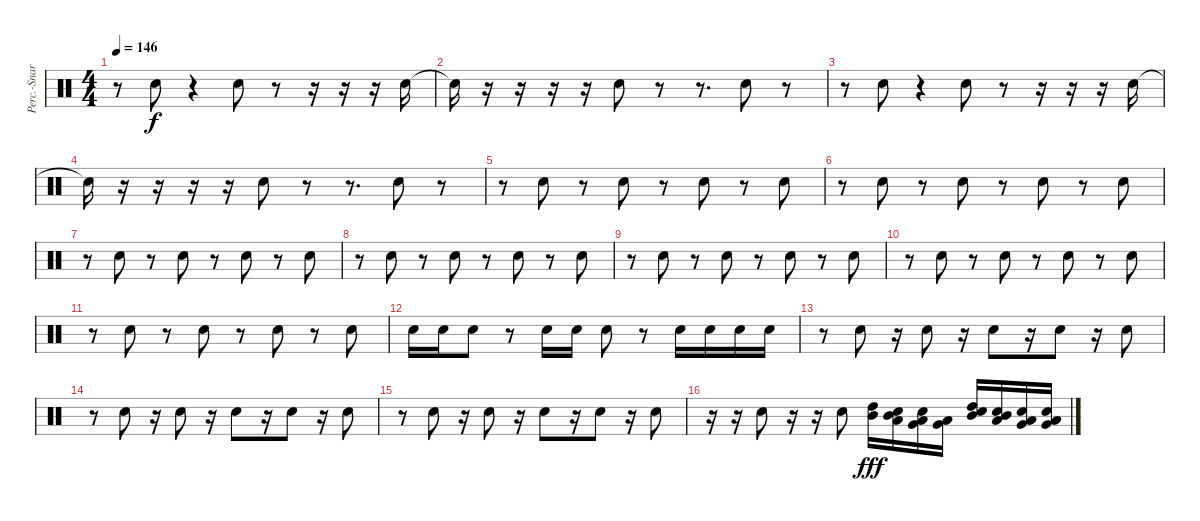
\track ("Perc.-Snare" "Perc.-Snar") {instrument percussion}
\staff {score}
\articulation defaults
\ts (4 4)
\tempo 146
\clef neutral
\ks c
r.8{dy f} "Snare (hit) 2".8 r.4 "Snare (hit) 2".8 r.8 r.16 r.16 r.16 "Snare (hit) 2".16 |
"Snare (hit)"{t}.16 r.16 r.16 r.16 r.16 "Snare (hit) 2".8 r.8 r.8{d} "Snare (hit) 2".8 r.8 |
r.8 "Snare (hit) 2".8 r.4 "Snare (hit) 2".8 r.8 r.16 r.16 r.16 "Snare (hit) 2".16 |
"Snare (hit)"{t}.16 r.16 r.16 r.16 r.16 "Snare (hit) 2".8 r.8 r.8{d} "Snare (hit) 2".8 r.8 |
r.8 "Snare (hit) 2".8 r.8 "Snare (hit) 2".8 r.8 "Snare (hit) 2".8 r.8 "Snare (hit) 2".8 |
r.8 "Snare (hit) 2".8 r.8 "Snare (hit) 2".8 r.8 "Snare (hit) 2".8 r.8 "Snare (hit) 2".8 |
r.8 "Snare (hit) 2".8 r.8 "Snare (hit) 2".8 r.8 "Snare (hit) 2".8 r.8 "Snare (hit) 2".8 |
r.8 "Snare (hit) 2".8 r.8 "Snare (hit) 2".8 r.8 "Snare (hit) 2".8 r.8 "Snare (hit) 2".8 |
r.8 "Snare (hit) 2".8 r.8 "Snare (hit) 2".8 r.8 "Snare (hit) 2".8 r.8 "Snare (hit) 2".8 |
r.8 "Snare (hit) 2".8 r.8 "Snare (hit) 2".8 r.8 "Snare (hit) 2".8 r.8 "Snare (hit) 2".8 |
r.8 "Snare (hit) 2".8 r.8 "Snare (hit) 2".8 r.8 "Snare (hit) 2".8 r.8 "Snare (hit) 2".8 |
"Snare (hit) 2".16 "Snare (hit) 2".16 "Snare (hit) 2".8 r.8 "Snare (hit) 2".16 "Snare (hit) 2".16 "Snare (hit) 2".8 r.8 "Snare (hit) 2".16 "Snare (hit) 2".16 "Snare (hit) 2".16 "Snare (hit) 2".16 |
r.8 "Snare (hit) 2".8 r.16 "Snare (hit) 2".8 r.16 "Snare (hit) 2".8 r.16 "Snare (hit) 2".8 r.16 "Snare (hit) 2".8 |
r.8 "Snare (hit) 2".8 r.16 "Snare (hit) 2".8 r.16 "Snare (hit) 2".8 r.16 "Snare (hit) 2".8 r.16 "Snare (hit) 2".8 |
r.8 "Snare (hit) 2".8 r.16 "Snare (hit) 2".8 r.16 "Snare (hit) 2".8 r.16 "Snare (hit) 2".8 r.16 "Snare (hit) 2".8 |
r.16 r.16 "Snare (hit) 2".8 r.16 r.16 "Snare (hit) 2".8 ("High Tom (hit)" "Mid Tom (hit)").16{dy fff} ("Mid Tom (hit)" "Low Tom (hit)" "Snare (hit) 2").16 ("Low Tom (hit)" "Very Low Tom (hit)" "Snare (hit) 2").16 ("Very Low Tom (hit)" "Low Floor Tom (hit)").16 ("High Tom (hit)" "Mid Tom (hit)" "Snare (hit) 2").16 ("Mid Tom (hit)" "Low Tom (hit)" "Snare (hit) 2").16 ("Low Tom (hit)" "Very Low Tom (hit)" "Snare (hit) 2").16 ("Very Low Tom (hit)" "Low Floor Tom (hit)" "Snare (hit) 2").16
